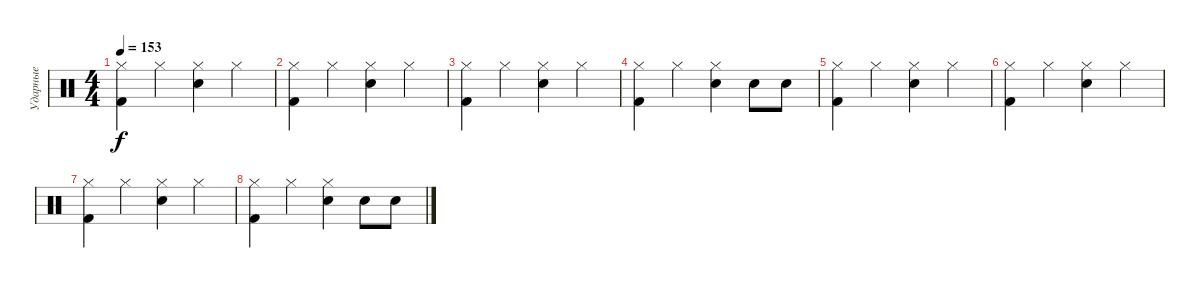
\track ("Ударные" "Ударные") {instrument percussion}
\staff {score}
\articulation defaults
\ts (4 4)
\tempo 153
\clef neutral
\ks c
("Hi-Hat (closed)" "Kick (hit) 2").4{dy f} "Hi-Hat (closed)".4 ("Hi-Hat (closed)" "Snare (hit) 2").4 "Hi-Hat (closed)".4 |
("Hi-Hat (closed)" "Kick (hit) 2").4 "Hi-Hat (closed)".4 ("Hi-Hat (closed)" "Snare (hit) 2").4 "Hi-Hat (closed)".4 |
("Hi-Hat (closed)" "Kick (hit) 2").4 "Hi-Hat (closed)".4 ("Hi-Hat (closed)" "Snare (hit) 2").4 "Hi-Hat (closed)".4 |
("Hi-Hat (closed)" "Kick (hit) 2").4 "Hi-Hat (closed)".4 ("Hi-Hat (closed)" "Snare (hit) 2").4 "Snare (hit) 2".8 "Snare (hit) 2".8 |
("Hi-Hat (closed)" "Kick (hit) 2").4 "Hi-Hat (closed)".4 ("Hi-Hat (closed)" "Snare (hit) 2").4 "Hi-Hat (closed)".4 |
("Hi-Hat (closed)" "Kick (hit) 2").4 "Hi-Hat (closed)".4 ("Hi-Hat (closed)" "Snare (hit) 2").4 "Hi-Hat (closed)".4 |
("Hi-Hat (closed)" "Kick (hit) 2").4 "Hi-Hat (closed)".4 ("Hi-Hat (closed)" "Snare (hit) 2").4 "Hi-Hat (closed)".4 |
("Hi-Hat (closed)" "Kick (hit) 2").4 "Hi-Hat (closed)".4 ("Hi-Hat (closed)" "Snare (hit) 2").4 "Snare (hit) 2".8 "Snare (hit) 2".8
